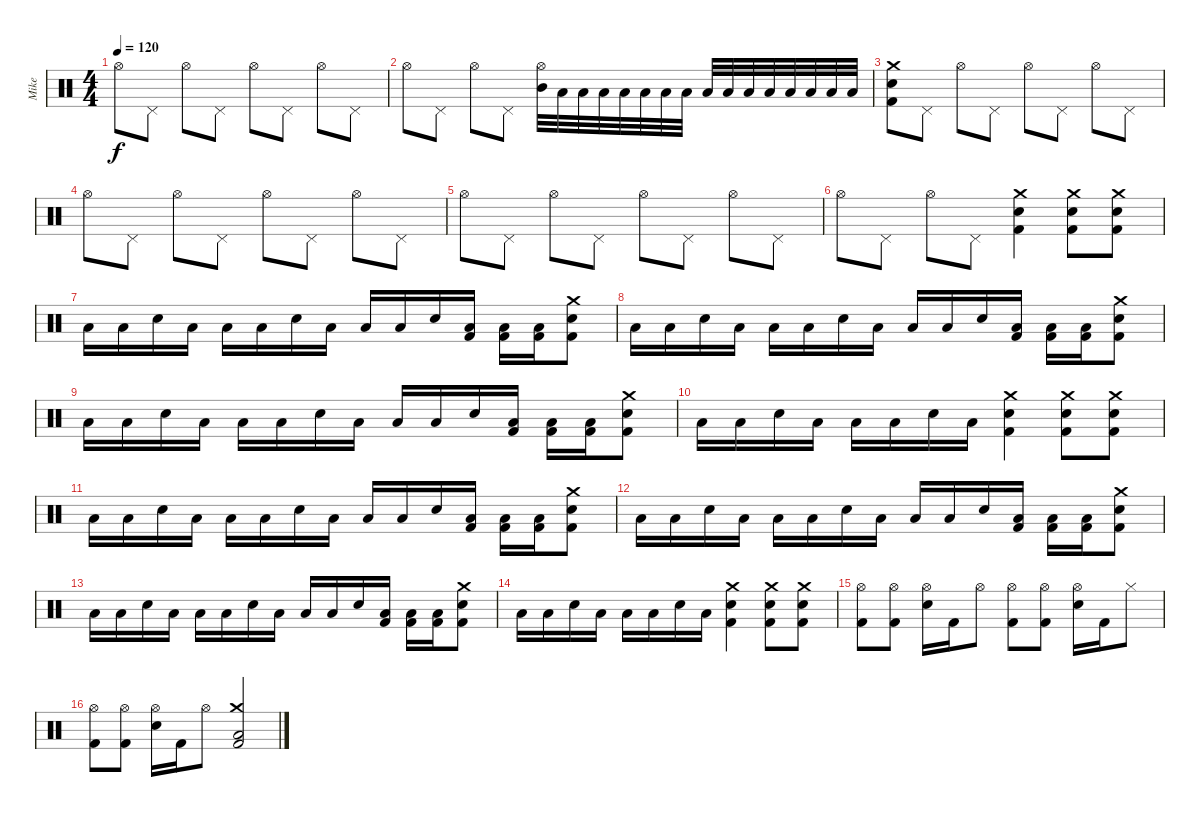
\track ("Mike" "Mike") {instrument percussion}
\staff {score}
\articulation defaults
\ts (4 4)
\tempo 120
\clef neutral
\ks c "Hi-Hat (open)".8{dy f} "Pedal Hi-Hat (hit)".8 "Hi-Hat (open)".8 "Pedal Hi-Hat (hit)".8 "Hi-Hat (open)".8 "Pedal Hi-Hat (hit)".8 "Hi-Hat (open)".8 "Pedal Hi-Hat (hit)".8
|
"Hi-Hat (open)".8 "Pedal Hi-Hat (hit)".8 "Hi-Hat (open)".8 "Pedal Hi-Hat (hit)".8 ("Hi-Hat (open)" "Mid Tom (hit)").32 "Low Floor Tom (hit)".32 "Low Floor Tom (hit)".32 "Low Floor Tom (hit)".32 "Low Floor Tom (hit)".32 "Low Floor Tom (hit)".32 "Low Floor Tom (hit)".32 "Low Tom (hit)".32 "Low Floor Tom (hit)".32 "Low Floor Tom (hit)".32 "Low Floor Tom (hit)".32 "Low Tom (hit)".32 "Low Floor Tom (hit)".32 "Low Floor Tom (hit)".32 "Low Floor Tom (hit)".32 "Low Floor Tom (hit)".32 |
("Crash medium (hit)" "Electric Snare (hit)" "Kick (hit) 2").8 "Pedal Hi-Hat (hit)".8 "Hi-Hat (open)".8 "Pedal Hi-Hat (hit)".8 "Hi-Hat (open)".8 "Pedal Hi-Hat (hit)".8 "Hi-Hat (open)".8 "Pedal Hi-Hat (hit)".8 |
"Hi-Hat (open)".8 "Pedal Hi-Hat (hit)".8 "Hi-Hat (open)".8 "Pedal Hi-Hat (hit)".8 "Hi-Hat (open)".8 "Pedal Hi-Hat (hit)".8 "Hi-Hat (open)".8 "Pedal Hi-Hat (hit)".8 |
"Hi-Hat (open)".8 "Pedal Hi-Hat (hit)".8 "Hi-Hat (open)".8 "Pedal Hi-Hat (hit)".8 "Hi-Hat (open)".8 "Pedal Hi-Hat (hit)".8 "Hi-Hat (open)".8 "Pedal Hi-Hat (hit)".8 |
"Hi-Hat (open)".8 "Pedal Hi-Hat (hit)".8 "Hi-Hat (open)".8 "Pedal Hi-Hat (hit)".8 ("Crash medium (hit)" "Electric Snare (hit)" "Kick (hit) 2").4 ("Crash medium (hit)" "Electric Snare (hit)" "Kick (hit) 2").8 ("Crash medium (hit)" "Electric Snare (hit)" "Kick (hit) 2").8 |
"Low Floor Tom (hit)".16 "Low Floor Tom (hit)".16 "Electric Snare (hit)".16 "Low Floor Tom (hit)".16 "Low Floor Tom (hit)".16 "Low Floor Tom (hit)".16 "Electric Snare (hit)".16 "Low Floor Tom (hit)".16 "Low Floor Tom (hit)".16 "Low Floor Tom (hit)".16 "Electric Snare (hit)".16 ("Low Floor Tom (hit)" "Kick (hit) 2").16 ("Low Floor Tom (hit)" "Kick (hit) 2").16 ("Low Floor Tom (hit)" "Kick (hit) 2").16 ("Crash medium (hit)" "Electric Snare (hit)" "Kick (hit) 2").8 |
"Low Floor Tom (hit)".16 "Low Floor Tom (hit)".16 "Electric Snare (hit)".16 "Low Floor Tom (hit)".16 "Low Floor Tom (hit)".16 "Low Floor Tom (hit)".16 "Electric Snare (hit)".16 "Low Floor Tom (hit)".16 "Low Floor Tom (hit)".16 "Low Floor Tom (hit)".16 "Electric Snare (hit)".16 ("Low Floor Tom (hit)" "Kick (hit) 2").16 ("Low Floor Tom (hit)" "Kick (hit) 2").16 ("Low Floor Tom (hit)" "Kick (hit) 2").16 ("Crash medium (hit)" "Electric Snare (hit)" "Kick (hit) 2").8 |
"Low Floor Tom (hit)".16 "Low Floor Tom (hit)".16 "Electric Snare (hit)".16 "Low Floor Tom (hit)".16 "Low Floor Tom (hit)".16 "Low Floor Tom (hit)".16 "Electric Snare (hit)".16 "Low Floor Tom (hit)".16 "Low Floor Tom (hit)".16 "Low Floor Tom (hit)".16 "Electric Snare (hit)".16 ("Low Floor Tom (hit)" "Kick (hit) 2").16 ("Low Floor Tom (hit)" "Kick (hit) 2").16 ("Low Floor Tom (hit)" "Kick (hit) 2").16 ("Crash medium (hit)" "Electric Snare (hit)" "Kick (hit) 2").8 |
"Low Floor Tom (hit)".16 "Low Floor Tom (hit)".16 "Electric Snare (hit)".16 "Low Floor Tom (hit)".16 "Low Floor Tom (hit)".16 "Low Floor Tom (hit)".16 "Electric Snare (hit)".16 "Low Floor Tom (hit)".16 ("Crash medium (hit)" "Electric Snare (hit)" "Kick (hit) 2").4 ("Crash medium (hit)" "Electric Snare (hit)" "Kick (hit) 2").8 ("Crash medium (hit)" "Electric Snare (hit)" "Kick (hit) 2").8 |
"Low Floor Tom (hit)".16 "Low Floor Tom (hit)".16 "Electric Snare (hit)".16 "Low Floor Tom (hit)".16 "Low Floor Tom (hit)".16 "Low Floor Tom (hit)".16 "Electric Snare (hit)".16 "Low Floor Tom (hit)".16 "Low Floor Tom (hit)".16 "Low Floor Tom (hit)".16 "Electric Snare (hit)".16 ("Low Floor Tom (hit)" "Kick (hit) 2").16 ("Low Floor Tom (hit)" "Kick (hit) 2").16 ("Low Floor Tom (hit)" "Kick (hit) 2").16 ("Crash medium (hit)" "Electric Snare (hit)" "Kick (hit) 2").8 |
"Low Floor Tom (hit)".16 "Low Floor Tom (hit)".16 "Electric Snare (hit)".16 "Low Floor Tom (hit)".16 "Low Floor Tom (hit)".16 "Low Floor Tom (hit)".16 "Electric Snare (hit)".16 "Low Floor Tom (hit)".16 "Low Floor Tom (hit)".16 "Low Floor Tom (hit)".16 "Electric Snare (hit)".16 ("Low Floor Tom (hit)" "Kick (hit) 2").16 ("Low Floor Tom (hit)" "Kick (hit) 2").16 ("Low Floor Tom (hit)" "Kick (hit) 2").16 ("Crash medium (hit)" "Electric Snare (hit)" "Kick (hit) 2").8 |
"Low Floor Tom (hit)".16 "Low Floor Tom (hit)".16 "Electric Snare (hit)".16 "Low Floor Tom (hit)".16 "Low Floor Tom (hit)".16 "Low Floor Tom (hit)".16 "Electric Snare (hit)".16 "Low Floor Tom (hit)".16 "Low Floor Tom (hit)".16 "Low Floor Tom (hit)".16 "Electric Snare (hit)".16 ("Low Floor Tom (hit)" "Kick (hit) 2").16 ("Low Floor Tom (hit)" "Kick (hit) 2").16 ("Low Floor Tom (hit)" "Kick (hit) 2").16 ("Crash medium (hit)" "Electric Snare (hit)" "Kick (hit) 2").8 |
"Low Floor Tom (hit)".16 "Low Floor Tom (hit)".16 "Electric Snare (hit)".16 "Low Floor Tom (hit)".16 "Low Floor Tom (hit)".16 "Low Floor Tom (hit)".16 "Electric Snare (hit)".16 "Low Floor Tom (hit)".16 ("Crash medium (hit)" "Electric Snare (hit)" "Kick (hit) 2").4 ("Crash medium (hit)" "Electric Snare (hit)" "Kick (hit) 2").8 ("Crash medium (hit)" "Electric Snare (hit)" "Kick (hit) 2").8 |
("Hi-Hat (open)" "Kick (hit) 2").8 ("Hi-Hat (open)" "Kick (hit) 2").8 ("Hi-Hat (open)" "Electric Snare (hit)").16 "Kick (hit) 2".16 "Hi-Hat (open)".8 ("Hi-Hat (open)" "Kick (hit) 2").8 ("Hi-Hat (open)" "Kick (hit) 2").8 ("Hi-Hat (open)" "Electric Snare (hit)").16 "Kick (hit) 2".16 "Hi-Hat (closed)".8 |
("Hi-Hat (open)" "Kick (hit) 2").8 ("Hi-Hat (open)" "Kick (hit) 2").8 ("Hi-Hat (open)" "Electric Snare (hit)").16 "Kick (hit) 2".16 "Hi-Hat (open)".8 ("Crash medium (hit)" "Low Floor Tom (hit)" "Kick (hit) 2").2
